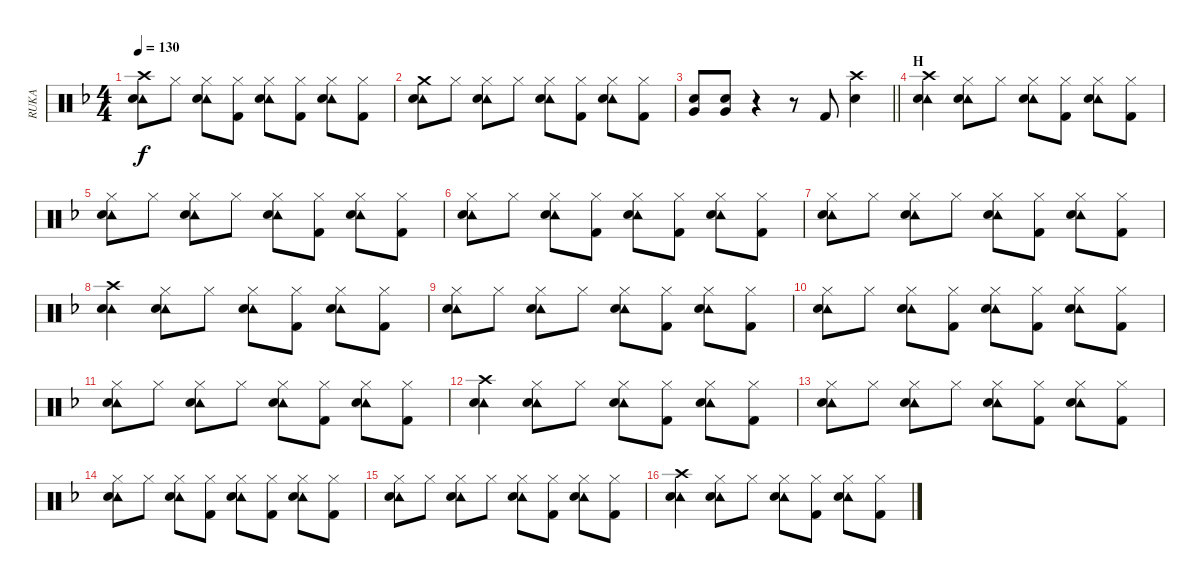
\track ("RUKA" "RUKA") {instrument percussion}
\staff {score}
\articulation defaults
\ts (4 4)
\tempo 130
\clef neutral
\ks f
("Crash high (hit)" "Tambourine (hit)" "Snare (hit) 2").8{dy f} "Hi-Hat (closed)".8 ("Hi-Hat (closed)" "Tambourine (hit)" "Snare (hit) 2").8 ("Hi-Hat (closed)" "Kick (hit) 2").8 ("Hi-Hat (closed)" "Tambourine (hit)" "Snare (hit) 2").8 ("Hi-Hat (closed)" "Kick (hit) 2").8 ("Hi-Hat (closed)" "Tambourine (hit)" "Snare (hit) 2").8 ("Hi-Hat (closed)" "Kick (hit) 2").8 |
("Crash medium (hit)" "Tambourine (hit)" "Snare (hit) 2").8 "Hi-Hat (closed)".8 ("Hi-Hat (closed)" "Tambourine (hit)" "Snare (hit) 2").8 "Hi-Hat (closed)".8 ("Hi-Hat (closed)" "Tambourine (hit)" "Snare (hit) 2").8 ("Hi-Hat (closed)" "Kick (hit) 2").8 ("Hi-Hat (closed)" "Tambourine (hit)" "Snare (hit) 2").8 ("Hi-Hat (closed)" "Kick (hit) 2").8 |
\barLineRight lightlight
("Snare (hit) 2" "Very Low Tom (hit)").8 ("Snare (hit) 2" "Very Low Tom (hit)").8 r.4 r.8 "Kick (hit) 2".8 ("Crash high (hit)" "Snare (hit) 2").4 |
\section ("" "H")
("Crash high (hit)" "Tambourine (hit)" "Snare (hit) 2").4 ("Hi-Hat (closed)" "Tambourine (hit)" "Snare (hit) 2").8 "Hi-Hat (closed)".8 ("Hi-Hat (closed)" "Tambourine (hit)" "Snare (hit) 2").8 ("Hi-Hat (closed)" "Kick (hit) 2").8 ("Hi-Hat (closed)" "Tambourine (hit)" "Snare (hit) 2").8 ("Hi-Hat (closed)" "Kick (hit) 2").8 |
("Hi-Hat (closed)" "Tambourine (hit)" "Snare (hit) 2").8 "Hi-Hat (closed)".8 ("Hi-Hat (closed)" "Tambourine (hit)" "Snare (hit) 2").8 "Hi-Hat (closed)".8 ("Hi-Hat (closed)" "Tambourine (hit)" "Snare (hit) 2").8 ("Hi-Hat (closed)" "Kick (hit) 2").8 ("Hi-Hat (closed)" "Tambourine (hit)" "Snare (hit) 2").8 ("Hi-Hat (closed)" "Kick (hit) 2").8 |
("Hi-Hat (closed)" "Tambourine (hit)" "Snare (hit) 2").8 "Hi-Hat (closed)".8 ("Hi-Hat (closed)" "Tambourine (hit)" "Snare (hit) 2").8 ("Hi-Hat (closed)" "Kick (hit) 2").8 ("Hi-Hat (closed)" "Tambourine (hit)" "Snare (hit) 2").8 ("Hi-Hat (closed)" "Kick (hit) 2").8 ("Hi-Hat (closed)" "Tambourine (hit)" "Snare (hit) 2").8 ("Hi-Hat (closed)" "Kick (hit) 2").8 |
("Hi-Hat (closed)" "Tambourine (hit)" "Snare (hit) 2").8 "Hi-Hat (closed)".8 ("Hi-Hat (closed)" "Tambourine (hit)" "Snare (hit) 2").8 "Hi-Hat (closed)".8 ("Hi-Hat (closed)" "Tambourine (hit)" "Snare (hit) 2").8 ("Hi-Hat (closed)" "Kick (hit) 2").8 ("Hi-Hat (closed)" "Tambourine (hit)" "Snare (hit) 2").8 ("Hi-Hat (closed)" "Kick (hit) 2").8 |
("Crash high (hit)" "Tambourine (hit)" "Snare (hit) 2").4 ("Hi-Hat (closed)" "Tambourine (hit)" "Snare (hit) 2").8 "Hi-Hat (closed)".8 ("Hi-Hat (closed)" "Tambourine (hit)" "Snare (hit) 2").8 ("Hi-Hat (closed)" "Kick (hit) 2").8 ("Hi-Hat (closed)" "Tambourine (hit)" "Snare (hit) 2").8 ("Hi-Hat (closed)" "Kick (hit) 2").8 |
("Hi-Hat (closed)" "Tambourine (hit)" "Snare (hit) 2").8 "Hi-Hat (closed)".8 ("Hi-Hat (closed)" "Tambourine (hit)" "Snare (hit) 2").8 "Hi-Hat (closed)".8 ("Hi-Hat (closed)" "Tambourine (hit)" "Snare (hit) 2").8 ("Hi-Hat (closed)" "Kick (hit) 2").8 ("Hi-Hat (closed)" "Tambourine (hit)" "Snare (hit) 2").8 ("Hi-Hat (closed)" "Kick (hit) 2").8 |
("Hi-Hat (closed)" "Tambourine (hit)" "Snare (hit) 2").8 "Hi-Hat (closed)".8 ("Hi-Hat (closed)" "Tambourine (hit)" "Snare (hit) 2").8 ("Hi-Hat (closed)" "Kick (hit) 2").8 ("Hi-Hat (closed)" "Tambourine (hit)" "Snare (hit) 2").8 ("Hi-Hat (closed)" "Kick (hit) 2").8 ("Hi-Hat (closed)" "Tambourine (hit)" "Snare (hit) 2").8 ("Hi-Hat (closed)" "Kick (hit) 2").8 |
("Hi-Hat (closed)" "Tambourine (hit)" "Snare (hit) 2").8 "Hi-Hat (closed)".8 ("Hi-Hat (closed)" "Tambourine (hit)" "Snare (hit) 2").8 "Hi-Hat (closed)".8 ("Hi-Hat (closed)" "Tambourine (hit)" "Snare (hit) 2").8 ("Hi-Hat (closed)" "Kick (hit) 2").8 ("Hi-Hat (closed)" "Tambourine (hit)" "Snare (hit) 2").8 ("Hi-Hat (closed)" "Kick (hit) 2").8 |
("Crash high (hit)" "Tambourine (hit)" "Snare (hit) 2").4 ("Hi-Hat (closed)" "Tambourine (hit)" "Snare (hit) 2").8 "Hi-Hat (closed)".8 ("Hi-Hat (closed)" "Tambourine (hit)" "Snare (hit) 2").8 ("Hi-Hat (closed)" "Kick (hit) 2").8 ("Hi-Hat (closed)" "Tambourine (hit)" "Snare (hit) 2").8 ("Hi-Hat (closed)" "Kick (hit) 2").8 |
("Hi-Hat (closed)" "Tambourine (hit)" "Snare (hit) 2").8 "Hi-Hat (closed)".8 ("Hi-Hat (closed)" "Tambourine (hit)" "Snare (hit) 2").8 "Hi-Hat (closed)".8 ("Hi-Hat (closed)" "Tambourine (hit)" "Snare (hit) 2").8 ("Hi-Hat (closed)" "Kick (hit) 2").8 ("Hi-Hat (closed)" "Tambourine (hit)" "Snare (hit) 2").8 ("Hi-Hat (closed)" "Kick (hit) 2").8 |
("Hi-Hat (closed)" "Tambourine (hit)" "Snare (hit) 2").8 "Hi-Hat (closed)".8 ("Hi-Hat (closed)" "Tambourine (hit)" "Snare (hit) 2").8 ("Hi-Hat (closed)" "Kick (hit) 2").8 ("Hi-Hat (closed)" "Tambourine (hit)" "Snare (hit) 2").8 ("Hi-Hat (closed)" "Kick (hit) 2").8 ("Hi-Hat (closed)" "Tambourine (hit)" "Snare (hit) 2").8 ("Hi-Hat (closed)" "Kick (hit) 2").8 |
("Hi-Hat (closed)" "Tambourine (hit)" "Snare (hit) 2").8 "Hi-Hat (closed)".8 ("Hi-Hat (closed)" "Tambourine (hit)" "Snare (hit) 2").8 "Hi-Hat (closed)".8 ("Hi-Hat (closed)" "Tambourine (hit)" "Snare (hit) 2").8 ("Hi-Hat (closed)" "Kick (hit) 2").8 ("Hi-Hat (closed)" "Tambourine (hit)" "Snare (hit) 2").8 ("Hi-Hat (closed)" "Kick (hit) 2").8 |
("Crash high (hit)" "Tambourine (hit)" "Snare (hit) 2").4 ("Hi-Hat (closed)" "Tambourine (hit)" "Snare (hit) 2").8 "Hi-Hat (closed)".8 ("Hi-Hat (closed)" "Tambourine (hit)" "Snare (hit) 2").8 ("Hi-Hat (closed)" "Kick (hit) 2").8 ("Hi-Hat (closed)" "Tambourine (hit)" "Snare (hit) 2").8 ("Hi-Hat (closed)" "Kick (hit) 2").8
